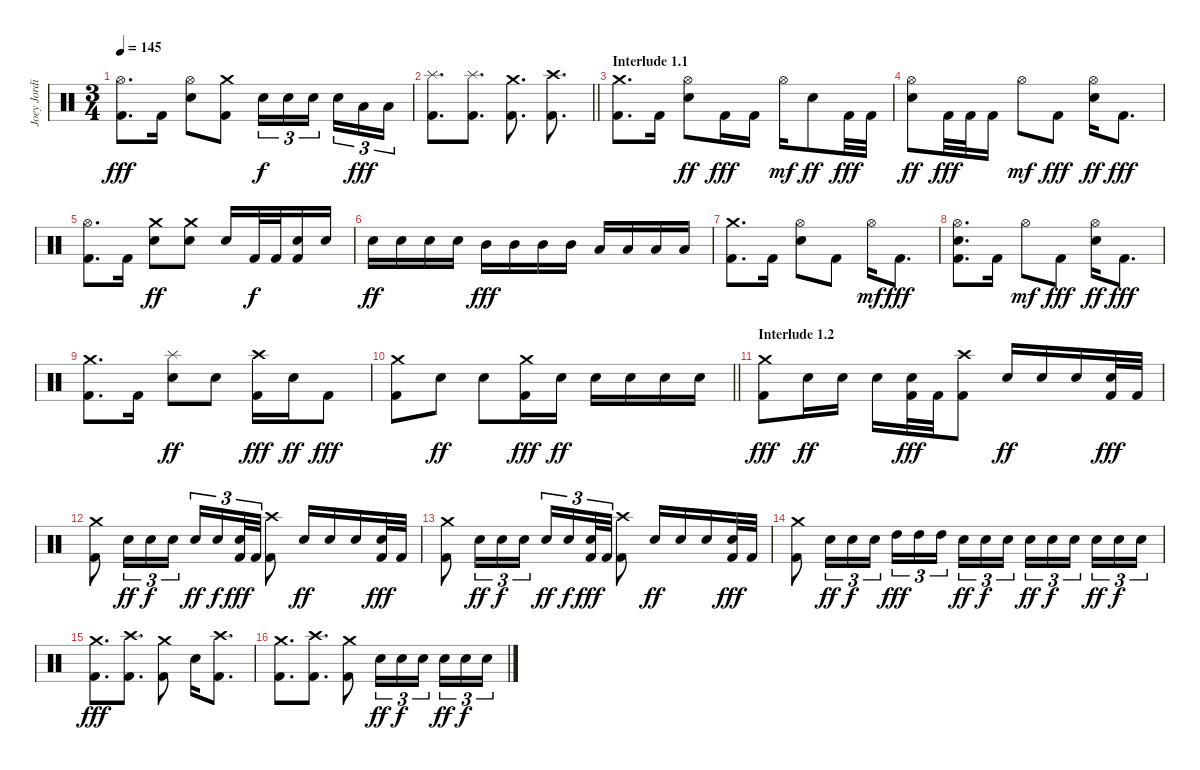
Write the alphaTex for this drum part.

\track ("Joey Jordison" "Joey Jordi") {instrument percussion}
\staff {score}
\articulation defaults
\ts (3 4)
\tempo 145
\clef neutral
\ks c
("Hi-Hat (open)" "Kick (hit) 2").8{d dy fff} "Kick (hit) 2".16 ("Hi-Hat (open)" "Electric Snare (hit)").8 ("Crash medium (hit)" "Kick (hit) 2").8 "Electric Snare (hit)".16{tu (3 2) dy f} "Electric Snare (hit)".16{tu (3 2)} "Electric Snare (hit)".16{tu (3 2) beam splitsecondary} "Electric Snare (hit)".16{tu (3 2)} "Low Tom (hit)".16{tu (3 2) dy fff} "Low Tom (hit)".16{tu (3 2)} |
\barLineRight lightlight
("Splash (hit)" "Kick (hit) 2").8{d} ("Splash (hit)" "Kick (hit) 2").8{d} ("Crash medium (hit)" "Kick (hit) 2").8{d} ("Crash high (hit)" "Kick (hit) 2").8{d} |
\section ("" "Interlude 1.1")
("Crash medium (hit)" "Kick (hit) 2").8{d} "Kick (hit) 2".16 ("Hi-Hat (open)" "Electric Snare (hit)").8{dy ff} "Kick (hit) 2".16{dy fff} "Kick (hit) 2".16 "Hi-Hat (open)".16{dy mf} "Electric Snare (hit)".8{dy ff} "Kick (hit) 2".32{dy fff} "Kick (hit) 2".32 |
("Hi-Hat (open)" "Electric Snare (hit)").8{dy ff} "Kick (hit) 2".32{dy fff} "Kick (hit) 2".32 "Kick (hit) 2".16 "Hi-Hat (open)".8{dy mf} "Kick (hit) 2".8{dy fff} ("Hi-Hat (open)" "Electric Snare (hit)").16{dy ff} "Kick (hit) 2".8{d dy fff} |
("Hi-Hat (open)" "Kick (hit) 2").8{d} "Kick (hit) 2".16 ("Crash medium (hit)" "Electric Snare (hit)").8{dy ff} ("Crash medium (hit)" "Electric Snare (hit)").8 "Electric Snare (hit)".16 "Kick (hit) 2".32{dy f} "Kick (hit) 2".32 ("Electric Snare (hit)" "Kick (hit) 2").16 "Electric Snare (hit)".16 |
"Electric Snare (hit)".16{dy ff} "Electric Snare (hit)".16 "Electric Snare (hit)".16 "Electric Snare (hit)".16 "Mid Tom (hit)".16{dy fff} "Mid Tom (hit)".16 "Mid Tom (hit)".16 "Mid Tom (hit)".16 "Low Tom (hit)".16 "Low Tom (hit)".16 "Low Tom (hit)".16 "Low Tom (hit)".16 |
("Crash medium (hit)" "Kick (hit) 2").8{d} "Kick (hit) 2".16 ("Hi-Hat (open)" "Electric Snare (hit)").8 "Kick (hit) 2".8 "Hi-Hat (open)".16{dy mf} "Kick (hit) 2".8{d dy fff} |
("Hi-Hat (open)" "Electric Snare (hit)" "Kick (hit) 2").8{d} "Kick (hit) 2".16 "Hi-Hat (open)".8{dy mf} "Kick (hit) 2".8{dy fff} ("Hi-Hat (open)" "Electric Snare (hit)").16{dy ff} "Kick (hit) 2".8{d dy fff} |
("Crash medium (hit)" "Kick (hit) 2").8{d} "Kick (hit) 2".16 ("Splash (hit)" "Electric Snare (hit)").8{dy ff} "Electric Snare (hit)".8 ("Crash high (hit)" "Kick (hit) 2").16{dy fff} "Electric Snare (hit)".16{dy ff} "Kick (hit) 2".8{dy fff} |
\barLineRight lightlight
("Crash medium (hit)" "Kick (hit) 2").8 "Electric Snare (hit)".8{dy ff} "Electric Snare (hit)".8 ("Crash medium (hit)" "Kick (hit) 2").16{dy fff} "Electric Snare (hit)".16{dy ff} "Electric Snare (hit)".16 "Electric Snare (hit)".16 "Electric Snare (hit)".16 "Electric Snare (hit)".16 |
\section ("" "Interlude 1.2")
("Crash medium (hit)" "Kick (hit) 2").8{dy fff} "Electric Snare (hit)".16{dy ff} "Electric Snare (hit)".16 "Electric Snare (hit)".16 ("Electric Snare (hit)" "Kick (hit) 2").32{dy fff} "Kick (hit) 2".32 ("Crash high (hit)" "Kick (hit) 2").8 "Electric Snare (hit)".16{dy ff} "Electric Snare (hit)".16 "Electric Snare (hit)".16 ("Electric Snare (hit)" "Kick (hit) 2").32{dy fff} "Kick (hit) 2".32 |
("Crash medium (hit)" "Kick (hit) 2").8 "Electric Snare (hit)".16{tu (3 2) dy ff} "Electric Snare (hit)".16{tu (3 2) dy f} "Electric Snare (hit)".16{tu (3 2)} "Electric Snare (hit)".16{tu (3 2) dy ff} "Electric Snare (hit)".16{tu (3 2) dy f} ("Electric Snare (hit)" "Kick (hit) 2").32{tu (3 2) dy fff} "Kick (hit) 2".32{tu (3 2)} ("Crash high (hit)" "Kick (hit) 2").8 "Electric Snare (hit)".16{dy ff} "Electric Snare (hit)".16 "Electric Snare (hit)".16 ("Electric Snare (hit)" "Kick (hit) 2").32{dy fff} "Kick (hit) 2".32 |
("Crash medium (hit)" "Kick (hit) 2").8 "Electric Snare (hit)".16{tu (3 2) dy ff} "Electric Snare (hit)".16{tu (3 2) dy f} "Electric Snare (hit)".16{tu (3 2)} "Electric Snare (hit)".16{tu (3 2) dy ff} "Electric Snare (hit)".16{tu (3 2) dy f} ("Electric Snare (hit)" "Kick (hit) 2").32{tu (3 2) dy fff} "Kick (hit) 2".32{tu (3 2)} ("Crash high (hit)" "Kick (hit) 2").8 "Electric Snare (hit)".16{dy ff} "Electric Snare (hit)".16 "Electric Snare (hit)".16 ("Electric Snare (hit)" "Kick (hit) 2").32{dy fff} "Kick (hit) 2".32 |
("Crash medium (hit)" "Kick (hit) 2").8 "Electric Snare (hit)".16{tu (3 2) dy ff} "Electric Snare (hit)".16{tu (3 2) dy f} "Electric Snare (hit)".16{tu (3 2)} "High Tom (hit)".16{tu (3 2) dy fff} "High Tom (hit)".16{tu (3 2)} "High Tom (hit)".16{tu (3 2) beam splitsecondary} "Electric Snare (hit)".16{tu (3 2) dy ff} "Electric Snare (hit)".16{tu (3 2) dy f} "Electric Snare (hit)".16{tu (3 2)} "Electric Snare (hit)".16{tu (3 2) dy ff} "Electric Snare (hit)".16{tu (3 2) dy f} "Electric Snare (hit)".16{tu (3 2) beam splitsecondary} "Electric Snare (hit)".16{tu (3 2) dy ff} "Electric Snare (hit)".16{tu (3 2) dy f} "Electric Snare (hit)".16{tu (3 2)} |
("Crash medium (hit)" "Kick (hit) 2").8{d dy fff} ("Crash high (hit)" "Kick (hit) 2").8{d} ("Crash medium (hit)" "Kick (hit) 2").8 "Electric Snare (hit)".16 ("Crash high (hit)" "Kick (hit) 2").8{d} |
("Crash medium (hit)" "Kick (hit) 2").8{d} ("Crash high (hit)" "Kick (hit) 2").8{d} ("Crash medium (hit)" "Kick (hit) 2").8 "Electric Snare (hit)".16{tu (3 2) dy ff} "Electric Snare (hit)".16{tu (3 2) dy f} "Electric Snare (hit)".16{tu (3 2) beam splitsecondary} "Electric Snare (hit)".16{tu (3 2) dy ff} "Electric Snare (hit)".16{tu (3 2) dy f} "Electric Snare (hit)".16{tu (3 2)}
